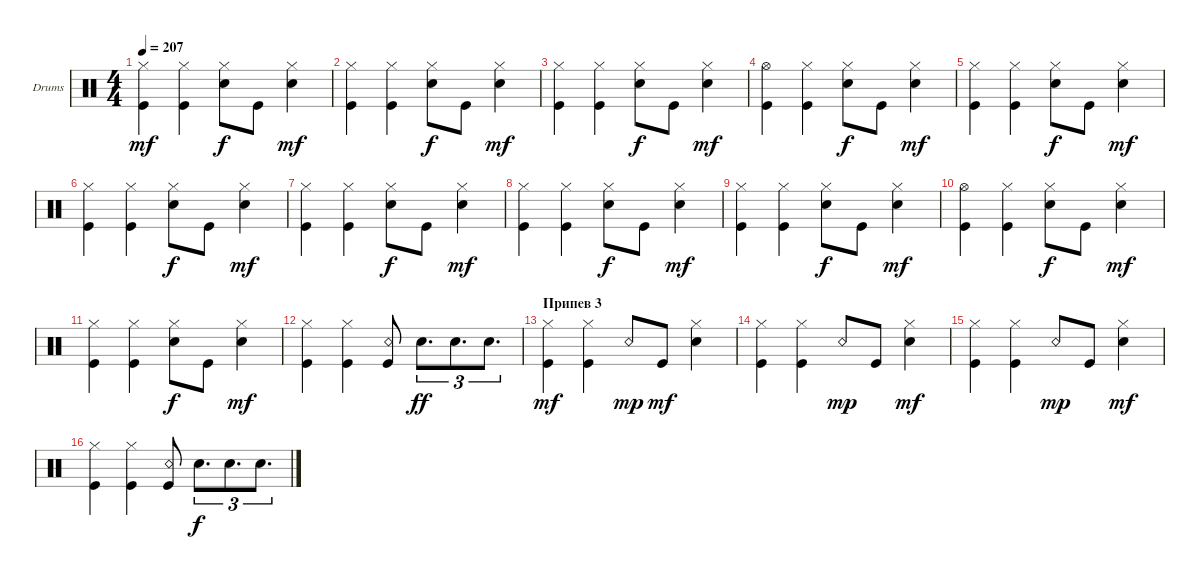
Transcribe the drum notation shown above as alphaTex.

\defaultSystemsLayout 4
\bracketExtendMode groupsimilarinstruments
\firstSystemTrackNameOrientation horizontal
\otherSystemsTrackNameOrientation horizontal
\track ("Drumkit" "Drums") {instrument percussion}
\staff {score}
\articulation defaults
\ts (4 4)
\tempo 207
\clef neutral
\ks c
("Kick (hit)" "Hi-Hat (closed)").4{dy mf} ("Hi-Hat (closed)" "Kick (hit)").4 ("Snare (hit) 2" "Hi-Hat (closed)").8{dy f} "Kick (hit)".8 ("Hi-Hat (closed)" "Snare (hit) 2").4{dy mf} |
("Kick (hit)" "Hi-Hat (closed)").4 ("Hi-Hat (closed)" "Kick (hit)").4 ("Snare (hit) 2" "Hi-Hat (closed)").8{dy f} "Kick (hit)".8 ("Hi-Hat (closed)" "Snare (hit) 2").4{dy mf} |
("Kick (hit)" "Hi-Hat (closed)").4 ("Hi-Hat (closed)" "Kick (hit)").4 ("Snare (hit) 2" "Hi-Hat (closed)").8{dy f} "Kick (hit)".8 ("Hi-Hat (closed)" "Snare (hit) 2").4{dy mf} |
("Kick (hit)" "Hi-Hat (open)").4 ("Hi-Hat (closed)" "Kick (hit)").4 ("Snare (hit) 2" "Hi-Hat (closed)").8{dy f} "Kick (hit)".8 ("Hi-Hat (closed)" "Snare (hit) 2").4{dy mf} |
("Kick (hit)" "Hi-Hat (closed)").4 ("Hi-Hat (closed)" "Kick (hit)").4 ("Snare (hit) 2" "Hi-Hat (closed)").8{dy f} "Kick (hit)".8 ("Hi-Hat (closed)" "Snare (hit) 2").4{dy mf} |
("Kick (hit)" "Hi-Hat (closed)").4 ("Hi-Hat (closed)" "Kick (hit)").4 ("Snare (hit) 2" "Hi-Hat (closed)").8{dy f} "Kick (hit)".8 ("Hi-Hat (closed)" "Snare (hit) 2").4{dy mf} |
("Kick (hit)" "Hi-Hat (closed)").4 ("Hi-Hat (closed)" "Kick (hit)").4 ("Snare (hit) 2" "Hi-Hat (closed)").8{dy f} "Kick (hit)".8 ("Hi-Hat (closed)" "Snare (hit) 2").4{dy mf} |
("Kick (hit)" "Hi-Hat (closed)").4 ("Hi-Hat (closed)" "Kick (hit)").4 ("Snare (hit) 2" "Hi-Hat (closed)").8{dy f} "Kick (hit)".8 ("Hi-Hat (closed)" "Snare (hit) 2").4{dy mf} |
("Kick (hit)" "Hi-Hat (closed)").4 ("Hi-Hat (closed)" "Kick (hit)").4 ("Snare (hit) 2" "Hi-Hat (closed)").8{dy f} "Kick (hit)".8 ("Hi-Hat (closed)" "Snare (hit) 2").4{dy mf} |
("Kick (hit)" "Hi-Hat (open)").4 ("Hi-Hat (closed)" "Kick (hit)").4 ("Snare (hit) 2" "Hi-Hat (closed)").8{dy f} "Kick (hit)".8 ("Hi-Hat (closed)" "Snare (hit) 2").4{dy mf} |
("Kick (hit)" "Hi-Hat (closed)").4 ("Hi-Hat (closed)" "Kick (hit)").4 ("Snare (hit) 2" "Hi-Hat (closed)").8{dy f} "Kick (hit)".8 ("Hi-Hat (closed)" "Snare (hit) 2").4{dy mf} |
("Kick (hit)" "Hi-Hat (closed)").4 ("Hi-Hat (closed)" "Kick (hit)").4 ("Kick (hit)" "Snare (rim shot)").8 "Snare (hit) 2".8{d tu (3 2) dy ff} "Snare (hit) 2".8{d tu (3 2)} "Snare (hit) 2".8{d tu (3 2)} |
\section ("" "Припев 3")
("Kick (hit)" "Hi-Hat (closed)").4{dy mf} ("Hi-Hat (closed)" "Kick (hit)").4 "Snare (rim shot)".8{dy mp} "Kick (hit)".8{dy mf} ("Hi-Hat (closed)" "Snare (hit) 2").4 |
("Kick (hit)" "Hi-Hat (closed)").4 ("Hi-Hat (closed)" "Kick (hit)").4 "Snare (rim shot)".8{dy mp} "Kick (hit)".8 ("Hi-Hat (closed)" "Snare (hit) 2").4{dy mf} |
("Kick (hit)" "Hi-Hat (closed)").4 ("Hi-Hat (closed)" "Kick (hit)").4 "Snare (rim shot)".8{dy mp} "Kick (hit)".8 ("Hi-Hat (closed)" "Snare (hit) 2").4{dy mf} |
("Kick (hit)" "Hi-Hat (closed)").4 ("Hi-Hat (closed)" "Kick (hit)").4 ("Kick (hit)" "Snare (rim shot)").8 "Snare (hit) 2".8{d tu (3 2) dy f} "Snare (hit) 2".8{d tu (3 2)} "Snare (hit) 2".8{d tu (3 2)}
